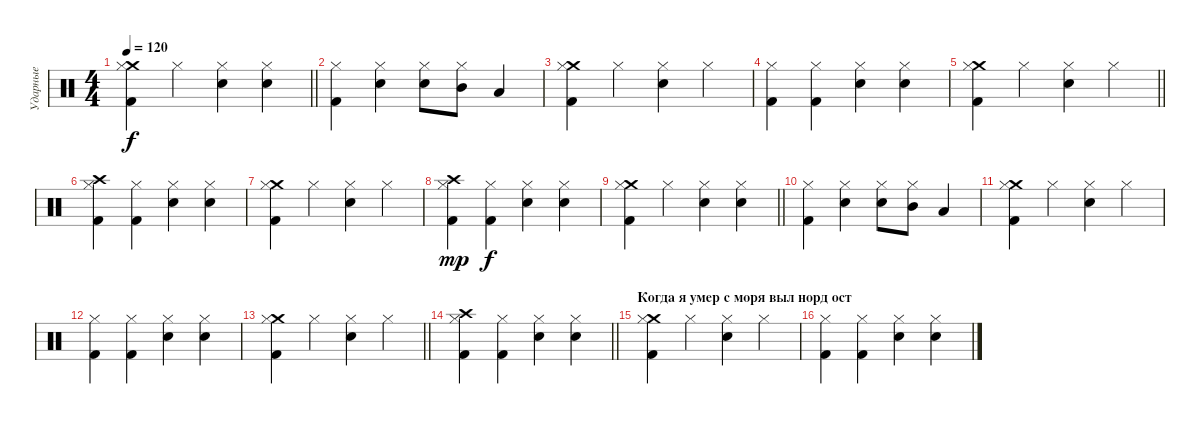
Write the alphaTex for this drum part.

\track ("Ударные" "Ударные") {instrument percussion}
\staff {score}
\articulation defaults
\ts (4 4)
\tempo 120
\clef neutral
\barLineRight lightlight
\ks c
("Crash medium (hit)" "Hi-Hat (closed)" "Kick (hit) 2").4{dy f} "Hi-Hat (closed)".4 ("Snare (hit) 2" "Hi-Hat (closed)").4 ("Snare (hit) 2" "Hi-Hat (closed)").4 |
("Hi-Hat (closed)" "Kick (hit) 2").4 ("Snare (hit) 2" "Hi-Hat (closed)").4 ("Snare (hit) 2" "Hi-Hat (closed)").8 ("Mid Tom (hit)" "Hi-Hat (closed)").8 "Low Tom (hit)".4 |
("Crash medium (hit)" "Hi-Hat (closed)" "Kick (hit) 2").4 "Hi-Hat (closed)".4 ("Snare (hit) 2" "Hi-Hat (closed)").4 "Hi-Hat (closed)".4 |
("Hi-Hat (closed)" "Kick (hit) 2").4 ("Hi-Hat (closed)" "Kick (hit) 2").4 ("Snare (hit) 2" "Hi-Hat (closed)").4 ("Snare (hit) 2" "Hi-Hat (closed)").4 |
\barLineRight lightlight
("Crash medium (hit)" "Hi-Hat (closed)" "Kick (hit) 2").4 "Hi-Hat (closed)".4 ("Snare (hit) 2" "Hi-Hat (closed)").4 "Hi-Hat (closed)".4 |
("Crash high (hit)" "Hi-Hat (closed)" "Kick (hit) 2").4 ("Hi-Hat (closed)" "Kick (hit) 2").4 ("Snare (hit) 2" "Hi-Hat (closed)").4 ("Snare (hit) 2" "Hi-Hat (closed)").4 |
("Crash medium (hit)" "Hi-Hat (closed)" "Kick (hit) 2").4 "Hi-Hat (closed)".4 ("Snare (hit) 2" "Hi-Hat (closed)").4 "Hi-Hat (closed)".4 |
("Crash high (hit)" "Hi-Hat (closed)" "Kick (hit) 2").4{dy mp} ("Hi-Hat (closed)" "Kick (hit) 2").4{dy f} ("Snare (hit) 2" "Hi-Hat (closed)").4 ("Snare (hit) 2" "Hi-Hat (closed)").4 |
\barLineRight lightlight
("Crash medium (hit)" "Hi-Hat (closed)" "Kick (hit) 2").4 "Hi-Hat (closed)".4 ("Snare (hit) 2" "Hi-Hat (closed)").4 ("Snare (hit) 2" "Hi-Hat (closed)").4 |
("Hi-Hat (closed)" "Kick (hit) 2").4 ("Snare (hit) 2" "Hi-Hat (closed)").4 ("Snare (hit) 2" "Hi-Hat (closed)").8 ("Mid Tom (hit)" "Hi-Hat (closed)").8 "Low Tom (hit)".4 |
("Crash medium (hit)" "Hi-Hat (closed)" "Kick (hit) 2").4 "Hi-Hat (closed)".4 ("Snare (hit) 2" "Hi-Hat (closed)").4 "Hi-Hat (closed)".4 |
("Hi-Hat (closed)" "Kick (hit) 2").4 ("Hi-Hat (closed)" "Kick (hit) 2").4 ("Snare (hit) 2" "Hi-Hat (closed)").4 ("Snare (hit) 2" "Hi-Hat (closed)").4 |
\barLineRight lightlight
("Crash medium (hit)" "Hi-Hat (closed)" "Kick (hit) 2").4 "Hi-Hat (closed)".4 ("Snare (hit) 2" "Hi-Hat (closed)").4 "Hi-Hat (closed)".4 |
\barLineRight lightlight
("Crash high (hit)" "Hi-Hat (closed)" "Kick (hit) 2").4 ("Hi-Hat (closed)" "Kick (hit) 2").4 ("Snare (hit) 2" "Hi-Hat (closed)").4 ("Snare (hit) 2" "Hi-Hat (closed)").4 |
\section ("" "Когда я умер с моря выл норд ост")
("Crash medium (hit)" "Hi-Hat (closed)" "Kick (hit) 2").4 "Hi-Hat (closed)".4 ("Snare (hit) 2" "Hi-Hat (closed)").4 "Hi-Hat (closed)".4 |
("Hi-Hat (closed)" "Kick (hit) 2").4 ("Hi-Hat (closed)" "Kick (hit) 2").4 ("Snare (hit) 2" "Hi-Hat (closed)").4 ("Snare (hit) 2" "Hi-Hat (closed)").4
